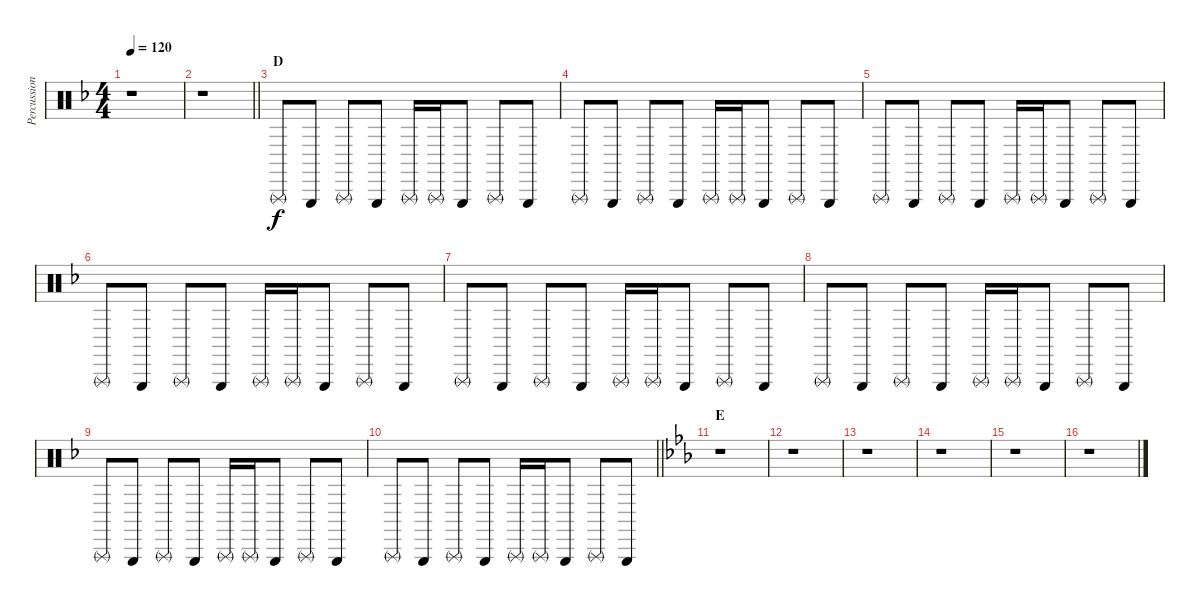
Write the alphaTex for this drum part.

\track ("Percussion" "Percussion") {instrument percussion}
\staff {score}
\articulation defaults
\ts (4 4)
\tempo 120
\clef neutral
\ks f
r.1{dy f} |
\barLineRight lightlight
r.1 |
\section ("" "D")
"Triangle (rnute)".8 "Triangle (hit)".8 "Triangle (rnute)".8 "Triangle (hit)".8 "Triangle (rnute)".16 "Triangle (rnute)".16 "Triangle (hit)".8 "Triangle (rnute)".8 "Triangle (hit)".8 |
"Triangle (rnute)".8 "Triangle (hit)".8 "Triangle (rnute)".8 "Triangle (hit)".8 "Triangle (rnute)".16 "Triangle (rnute)".16 "Triangle (hit)".8 "Triangle (rnute)".8 "Triangle (hit)".8 |
"Triangle (rnute)".8 "Triangle (hit)".8 "Triangle (rnute)".8 "Triangle (hit)".8 "Triangle (rnute)".16 "Triangle (rnute)".16 "Triangle (hit)".8 "Triangle (rnute)".8 "Triangle (hit)".8 |
"Triangle (rnute)".8 "Triangle (hit)".8 "Triangle (rnute)".8 "Triangle (hit)".8 "Triangle (rnute)".16 "Triangle (rnute)".16 "Triangle (hit)".8 "Triangle (rnute)".8 "Triangle (hit)".8 |
"Triangle (rnute)".8 "Triangle (hit)".8 "Triangle (rnute)".8 "Triangle (hit)".8 "Triangle (rnute)".16 "Triangle (rnute)".16 "Triangle (hit)".8 "Triangle (rnute)".8 "Triangle (hit)".8 |
"Triangle (rnute)".8 "Triangle (hit)".8 "Triangle (rnute)".8 "Triangle (hit)".8 "Triangle (rnute)".16 "Triangle (rnute)".16 "Triangle (hit)".8 "Triangle (rnute)".8 "Triangle (hit)".8 |
"Triangle (rnute)".8 "Triangle (hit)".8 "Triangle (rnute)".8 "Triangle (hit)".8 "Triangle (rnute)".16 "Triangle (rnute)".16 "Triangle (hit)".8 "Triangle (rnute)".8 "Triangle (hit)".8 |
\barLineRight lightlight "Triangle (rnute)".8 "Triangle (hit)".8 "Triangle (rnute)".8 "Triangle (hit)".8 "Triangle (rnute)".16 "Triangle (rnute)".16 "Triangle (hit)".8 "Triangle (rnute)".8 "Triangle (hit)".8
|
\section ("" "E")
\ks eb
r.1 |
r.1 |
r.1 |
r.1 |
r.1 |
r.1
